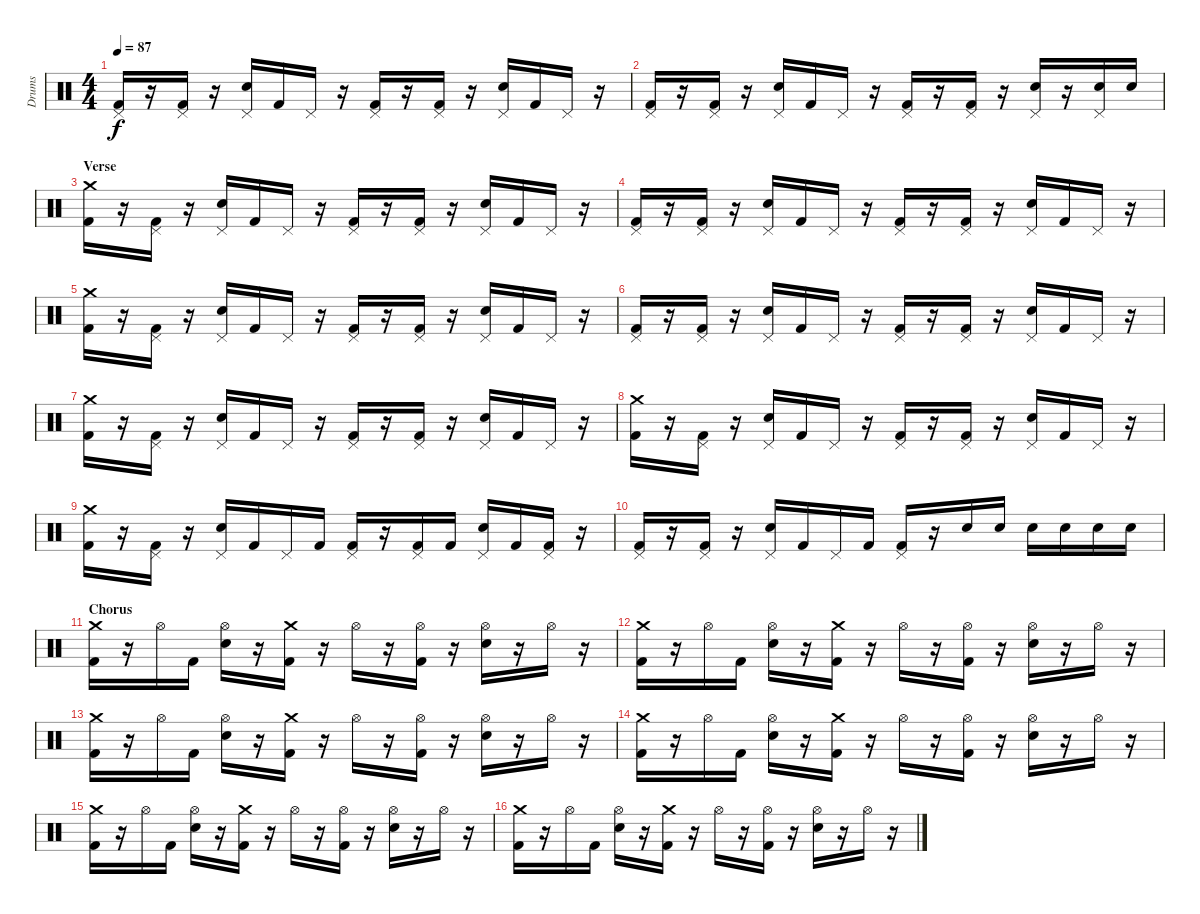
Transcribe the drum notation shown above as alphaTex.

\track ("Drums" "Drums") {instrument percussion}
\staff {score}
\articulation defaults
\ts (4 4)
\tempo 87
\clef neutral
\ks c
("Pedal Hi-Hat (hit)" "Kick (hit) 2").16{dy f} r.16 ("Pedal Hi-Hat (hit)" "Kick (hit) 2").16 r.16 ("Pedal Hi-Hat (hit)" "Electric Snare (hit)").16 "Kick (hit) 2".16 "Pedal Hi-Hat (hit)".16 r.16 ("Pedal Hi-Hat (hit)" "Kick (hit) 2").16 r.16 ("Pedal Hi-Hat (hit)" "Kick (hit) 2").16 r.16 ("Pedal Hi-Hat (hit)" "Electric Snare (hit)").16 "Kick (hit) 2".16 "Pedal Hi-Hat (hit)".16 r.16 |
("Pedal Hi-Hat (hit)" "Kick (hit) 2").16 r.16 ("Pedal Hi-Hat (hit)" "Kick (hit) 2").16 r.16 ("Pedal Hi-Hat (hit)" "Electric Snare (hit)").16 "Kick (hit) 2".16 "Pedal Hi-Hat (hit)".16 r.16 ("Pedal Hi-Hat (hit)" "Kick (hit) 2").16 r.16 ("Pedal Hi-Hat (hit)" "Kick (hit) 2").16 r.16 ("Pedal Hi-Hat (hit)" "Electric Snare (hit)").16 r.16 ("Pedal Hi-Hat (hit)" "Electric Snare (hit)").16 "Electric Snare (hit)".16 |
\section ("" "Verse")
("Crash medium (hit)" "Kick (hit) 2").16 r.16 ("Pedal Hi-Hat (hit)" "Kick (hit) 2").16 r.16 ("Pedal Hi-Hat (hit)" "Electric Snare (hit)").16 "Kick (hit) 2".16 "Pedal Hi-Hat (hit)".16 r.16 ("Pedal Hi-Hat (hit)" "Kick (hit) 2").16 r.16 ("Pedal Hi-Hat (hit)" "Kick (hit) 2").16 r.16 ("Pedal Hi-Hat (hit)" "Electric Snare (hit)").16 "Kick (hit) 2".16 "Pedal Hi-Hat (hit)".16 r.16 |
("Pedal Hi-Hat (hit)" "Kick (hit) 2").16 r.16 ("Pedal Hi-Hat (hit)" "Kick (hit) 2").16 r.16 ("Pedal Hi-Hat (hit)" "Electric Snare (hit)").16 "Kick (hit) 2".16 "Pedal Hi-Hat (hit)".16 r.16 ("Pedal Hi-Hat (hit)" "Kick (hit) 2").16 r.16 ("Pedal Hi-Hat (hit)" "Kick (hit) 2").16 r.16 ("Pedal Hi-Hat (hit)" "Electric Snare (hit)").16 "Kick (hit) 2".16 "Pedal Hi-Hat (hit)".16 r.16 |
("Crash medium (hit)" "Kick (hit) 2").16 r.16 ("Pedal Hi-Hat (hit)" "Kick (hit) 2").16 r.16 ("Pedal Hi-Hat (hit)" "Electric Snare (hit)").16 "Kick (hit) 2".16 "Pedal Hi-Hat (hit)".16 r.16 ("Pedal Hi-Hat (hit)" "Kick (hit) 2").16 r.16 ("Pedal Hi-Hat (hit)" "Kick (hit) 2").16 r.16 ("Pedal Hi-Hat (hit)" "Electric Snare (hit)").16 "Kick (hit) 2".16 "Pedal Hi-Hat (hit)".16 r.16 |
("Pedal Hi-Hat (hit)" "Kick (hit) 2").16 r.16 ("Pedal Hi-Hat (hit)" "Kick (hit) 2").16 r.16 ("Pedal Hi-Hat (hit)" "Electric Snare (hit)").16 "Kick (hit) 2".16 "Pedal Hi-Hat (hit)".16 r.16 ("Pedal Hi-Hat (hit)" "Kick (hit) 2").16 r.16 ("Pedal Hi-Hat (hit)" "Kick (hit) 2").16 r.16 ("Pedal Hi-Hat (hit)" "Electric Snare (hit)").16 "Kick (hit) 2".16 "Pedal Hi-Hat (hit)".16 r.16 |
("Crash medium (hit)" "Kick (hit) 2").16 r.16 ("Pedal Hi-Hat (hit)" "Kick (hit) 2").16 r.16 ("Pedal Hi-Hat (hit)" "Electric Snare (hit)").16 "Kick (hit) 2".16 "Pedal Hi-Hat (hit)".16 r.16 ("Pedal Hi-Hat (hit)" "Kick (hit) 2").16 r.16 ("Pedal Hi-Hat (hit)" "Kick (hit) 2").16 r.16 ("Pedal Hi-Hat (hit)" "Electric Snare (hit)").16 "Kick (hit) 2".16 "Pedal Hi-Hat (hit)".16 r.16 |
("Crash medium (hit)" "Kick (hit) 2").16 r.16 ("Pedal Hi-Hat (hit)" "Kick (hit) 2").16 r.16 ("Pedal Hi-Hat (hit)" "Electric Snare (hit)").16 "Kick (hit) 2".16 "Pedal Hi-Hat (hit)".16 r.16 ("Pedal Hi-Hat (hit)" "Kick (hit) 2").16 r.16 ("Pedal Hi-Hat (hit)" "Kick (hit) 2").16 r.16 ("Pedal Hi-Hat (hit)" "Electric Snare (hit)").16 "Kick (hit) 2".16 "Pedal Hi-Hat (hit)".16 r.16 |
("Crash medium (hit)" "Kick (hit) 2").16 r.16 ("Pedal Hi-Hat (hit)" "Kick (hit) 2").16 r.16 ("Pedal Hi-Hat (hit)" "Electric Snare (hit)").16 "Kick (hit) 2".16 "Pedal Hi-Hat (hit)".16 "Kick (hit) 2".16 ("Pedal Hi-Hat (hit)" "Kick (hit) 2").16 r.16 ("Pedal Hi-Hat (hit)" "Kick (hit) 2").16 "Kick (hit) 2".16 ("Pedal Hi-Hat (hit)" "Electric Snare (hit)").16 "Kick (hit) 2".16 ("Pedal Hi-Hat (hit)" "Kick (hit) 2").16 r.16 |
("Pedal Hi-Hat (hit)" "Kick (hit) 2").16 r.16 ("Pedal Hi-Hat (hit)" "Kick (hit) 2").16 r.16 ("Pedal Hi-Hat (hit)" "Electric Snare (hit)").16 "Kick (hit) 2".16 "Pedal Hi-Hat (hit)".16 "Kick (hit) 2".16 ("Pedal Hi-Hat (hit)" "Kick (hit) 2").16 r.16 "Electric Snare (hit)".16 "Electric Snare (hit)".16 "Electric Snare (hit)".16 "Electric Snare (hit)".16 "Electric Snare (hit)".16 "Electric Snare (hit)".16 |
\section ("" "Chorus")
("Crash medium (hit)" "Kick (hit) 2").16 r.16 "Hi-Hat (open)".16 "Kick (hit) 2".16 ("Hi-Hat (open)" "Electric Snare (hit)").16 r.16 ("Crash medium (hit)" "Kick (hit) 2").16 r.16 "Hi-Hat (open)".16 r.16 ("Hi-Hat (open)" "Kick (hit) 2").16 r.16 ("Hi-Hat (open)" "Electric Snare (hit)").16 r.16 "Hi-Hat (open)".16 r.16 |
("Crash medium (hit)" "Kick (hit) 2").16 r.16 "Hi-Hat (open)".16 "Kick (hit) 2".16 ("Hi-Hat (open)" "Electric Snare (hit)").16 r.16 ("Crash medium (hit)" "Kick (hit) 2").16 r.16 "Hi-Hat (open)".16 r.16 ("Hi-Hat (open)" "Kick (hit) 2").16 r.16 ("Hi-Hat (open)" "Electric Snare (hit)").16 r.16 "Hi-Hat (open)".16 r.16 |
("Crash medium (hit)" "Kick (hit) 2").16 r.16 "Hi-Hat (open)".16 "Kick (hit) 2".16 ("Hi-Hat (open)" "Electric Snare (hit)").16 r.16 ("Crash medium (hit)" "Kick (hit) 2").16 r.16 "Hi-Hat (open)".16 r.16 ("Hi-Hat (open)" "Kick (hit) 2").16 r.16 ("Hi-Hat (open)" "Electric Snare (hit)").16 r.16 "Hi-Hat (open)".16 r.16 |
("Crash medium (hit)" "Kick (hit) 2").16 r.16 "Hi-Hat (open)".16 "Kick (hit) 2".16 ("Hi-Hat (open)" "Electric Snare (hit)").16 r.16 ("Crash medium (hit)" "Kick (hit) 2").16 r.16 "Hi-Hat (open)".16 r.16 ("Hi-Hat (open)" "Kick (hit) 2").16 r.16 ("Hi-Hat (open)" "Electric Snare (hit)").16 r.16 "Hi-Hat (open)".16 r.16 |
("Crash medium (hit)" "Kick (hit) 2").16 r.16 "Hi-Hat (open)".16 "Kick (hit) 2".16 ("Hi-Hat (open)" "Electric Snare (hit)").16 r.16 ("Crash medium (hit)" "Kick (hit) 2").16 r.16 "Hi-Hat (open)".16 r.16 ("Hi-Hat (open)" "Kick (hit) 2").16 r.16 ("Hi-Hat (open)" "Electric Snare (hit)").16 r.16 "Hi-Hat (open)".16 r.16 |
("Crash medium (hit)" "Kick (hit) 2").16 r.16 "Hi-Hat (open)".16 "Kick (hit) 2".16 ("Hi-Hat (open)" "Electric Snare (hit)").16 r.16 ("Crash medium (hit)" "Kick (hit) 2").16 r.16 "Hi-Hat (open)".16 r.16 ("Hi-Hat (open)" "Kick (hit) 2").16 r.16 ("Hi-Hat (open)" "Electric Snare (hit)").16 r.16 "Hi-Hat (open)".16 r.16
